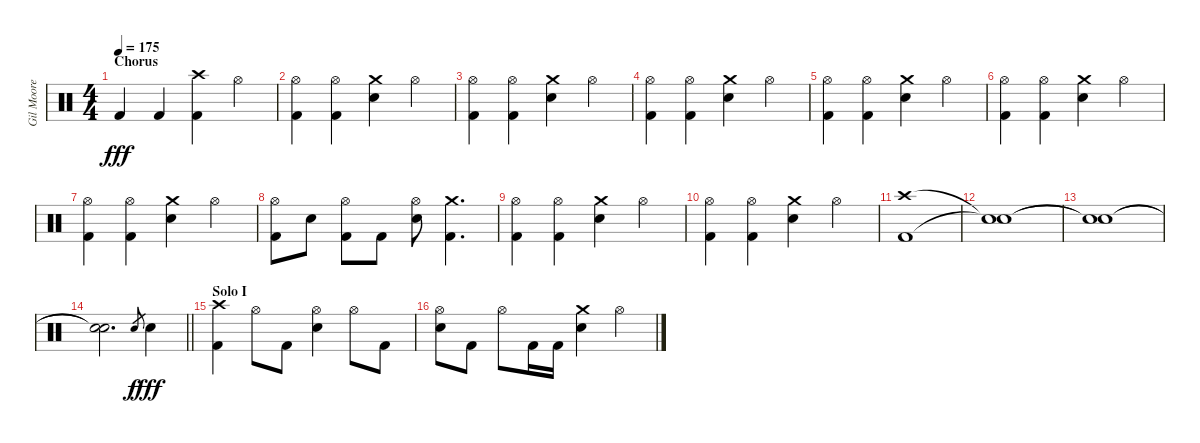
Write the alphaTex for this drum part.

\track ("Gil Moore" "Gil Moore") {instrument percussion}
\staff {score}
\articulation defaults
\ts (4 4)
\section ("" "Chorus")
\tempo 175
\clef neutral
\ks c "Kick (hit) 2".4{dy fff} "Kick (hit) 2".4
("Crash high (hit)" "Kick (hit) 2").4 "Hi-Hat (open)".4 |
("Hi-Hat (open)" "Kick (hit) 2").4 ("Hi-Hat (open)" "Kick (hit) 2").4 ("Crash medium (hit)" "Snare (hit) 2").4 "Hi-Hat (open)".4 |
("Hi-Hat (open)" "Kick (hit) 2").4 ("Hi-Hat (open)" "Kick (hit) 2").4 ("Crash medium (hit)" "Snare (hit) 2").4 "Hi-Hat (open)".4 |
("Hi-Hat (open)" "Kick (hit) 2").4 ("Hi-Hat (open)" "Kick (hit) 2").4 ("Crash medium (hit)" "Snare (hit) 2").4 "Hi-Hat (open)".4 |
("Hi-Hat (open)" "Kick (hit) 2").4 ("Hi-Hat (open)" "Kick (hit) 2").4 ("Crash medium (hit)" "Snare (hit) 2").4 "Hi-Hat (open)".4 |
("Hi-Hat (open)" "Kick (hit) 2").4 ("Hi-Hat (open)" "Kick (hit) 2").4 ("Crash medium (hit)" "Snare (hit) 2").4 "Hi-Hat (open)".4 |
("Hi-Hat (open)" "Kick (hit) 2").4 ("Hi-Hat (open)" "Kick (hit) 2").4 ("Crash medium (hit)" "Snare (hit) 2").4 "Hi-Hat (open)".4 |
("Hi-Hat (open)" "Kick (hit) 2").8 "Snare (hit) 2".8 ("Hi-Hat (open)" "Kick (hit) 2").8 "Kick (hit) 2".8 ("Hi-Hat (open)" "Snare (hit) 2").8 ("Crash medium (hit)" "Kick (hit) 2").4{d} |
("Hi-Hat (open)" "Kick (hit) 2").4 ("Hi-Hat (open)" "Kick (hit) 2").4 ("Crash medium (hit)" "Snare (hit) 2").4 "Hi-Hat (open)".4 |
("Hi-Hat (open)" "Kick (hit) 2").4 ("Hi-Hat (open)" "Kick (hit) 2").4 ("Crash medium (hit)" "Snare (hit) 2").4 "Hi-Hat (open)".4 |
("Crash high (hit)" "Kick (hit) 2").1 |
("Snare (hit)"{t} "Snare (hit)"{t}).1 |
("Snare (hit)"{t} "Snare (hit)"{t}).1 |
\barLineRight lightlight
("Snare (hit)"{t} "Snare (hit)"{t}).2{d} "Snare (hit) 2".8{gr dy f} "Snare (hit) 2".4{dy fff} |
\section ("" "Solo I")
("Crash high (hit)" "Kick (hit) 2").4 "Hi-Hat (open)".8 "Kick (hit) 2".8 ("Hi-Hat (open)" "Snare (hit) 2").4 "Hi-Hat (open)".8 "Kick (hit) 2".8 |
("Hi-Hat (open)" "Snare (hit) 2").8 "Kick (hit) 2".8 "Hi-Hat (open)".8 "Kick (hit) 2".16 "Kick (hit) 2".16 ("Crash medium (hit)" "Snare (hit) 2").4 "Hi-Hat (open)".4
